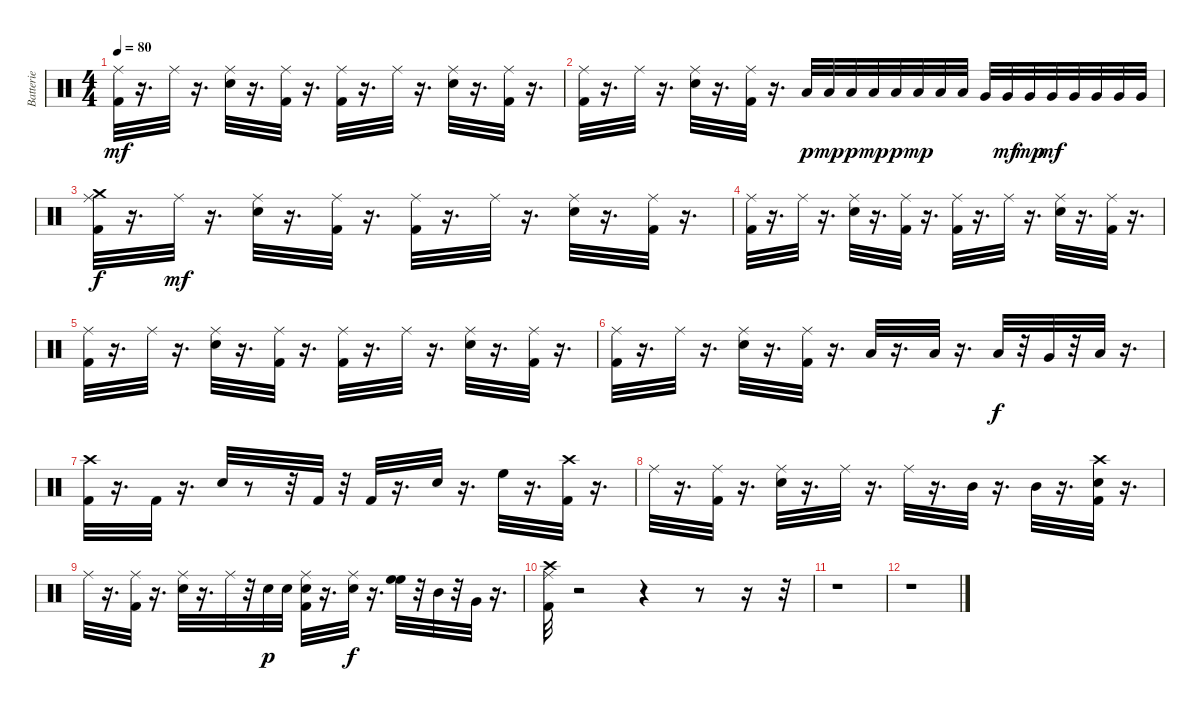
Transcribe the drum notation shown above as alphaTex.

\track ("Batterie" "Batterie") {instrument percussion}
\staff {score}
\articulation defaults
\ts (4 4)
\tempo 80
\clef neutral
\ks c
("Kick (hit) 2" "Ride (middle)").32{dy mf} r.16{d} "Ride (middle)".32 r.16{d} ("Ride (middle)" "Electric Snare (hit)").32 r.16{d} ("Ride (middle)" "Kick (hit) 2").32 r.16{d} ("Ride (middle)" "Kick (hit) 2").32 r.16{d} "Ride (middle)".32 r.16{d} ("Electric Snare (hit)" "Ride (middle)").32 r.16{d} ("Ride (middle)" "Kick (hit) 2").32 r.16{d} |
("Kick (hit) 2" "Ride (middle)").32 r.16{d} "Ride (middle)".32 r.16{d} ("Ride (middle)" "Electric Snare (hit)").32 r.16{d} ("Ride (middle)" "Kick (hit) 2").32 r.16{d} "Low Tom (hit)".32{dy p} "Low Tom (hit)".32{dy mp} "Low Tom (hit)".32{dy p} "Low Tom (hit)".32{dy mp} "Low Tom (hit)".32{dy p} "Low Tom (hit)".32{dy mp} "Low Tom (hit)".32 "Low Tom (hit)".32 "Very Low Tom (hit)".32 "Very Low Tom (hit)".32{dy mf} "Very Low Tom (hit)".32{dy mp} "Very Low Tom (hit)".32{dy mf} "Very Low Tom (hit)".32 "Very Low Tom (hit)".32 "Very Low Tom (hit)".32 "Very Low Tom (hit)".32 |
("Crash medium (hit)" "Kick (hit) 2" "Ride (middle)").32{dy f} r.16{d} "Ride (middle)".32{dy mf} r.16{d} ("Ride (middle)" "Electric Snare (hit)").32 r.16{d} ("Kick (hit) 2" "Ride (middle)").32 r.16{d} ("Ride (middle)" "Kick (hit) 2").32 r.16{d} "Ride (middle)".32 r.16{d} ("Electric Snare (hit)" "Ride (middle)").32 r.16{d} ("Ride (middle)" "Kick (hit) 2").32 r.16{d} |
("Ride (middle)" "Kick (hit) 2").32 r.16{d} "Ride (middle)".32 r.16{d} ("Ride (middle)" "Electric Snare (hit)").32 r.16{d} ("Ride (middle)" "Kick (hit) 2").32 r.16{d} ("Ride (middle)" "Kick (hit) 2").32 r.16{d} "Ride (middle)".32 r.16{d} ("Electric Snare (hit)" "Ride (middle)").32 r.16{d} ("Ride (middle)" "Kick (hit) 2").32 r.16{d} |
("Ride (middle)" "Kick (hit) 2").32 r.16{d} "Ride (middle)".32 r.16{d} ("Electric Snare (hit)" "Ride (middle)").32 r.16{d} ("Kick (hit) 2" "Ride (middle)").32 r.16{d} ("Ride (middle)" "Kick (hit) 2").32 r.16{d} "Ride (middle)".32 r.16{d} ("Electric Snare (hit)" "Ride (middle)").32 r.16{d} ("Ride (middle)" "Kick (hit) 2").32 r.16{d} |
("Ride (middle)" "Kick (hit) 2").32 r.16{d} "Ride (middle)".32 r.16{d} ("Ride (middle)" "Electric Snare (hit)").32 r.16{d} ("Kick (hit) 2" "Ride (middle)").32 r.16{d} "Low Tom (hit)".32 r.16{d} "Low Tom (hit)".32 r.16{d} "Low Tom (hit)".32{dy f} r.32 "Very Low Tom (hit)".32 r.32 "Low Floor Tom (hit)".32 r.16{d} |
("Kick (hit) 2" "Crash high (hit)").32 r.16{d} "Kick (hit) 2".32 r.16{d} "Electric Snare (hit)".32 r.8 r.32 "Kick (hit) 2".32 r.32 "Kick (hit) 2".32 r.16{d} "Electric Snare (hit)".32 r.16{d} "High Floor Tom (hit)".32 r.16{d} ("Crash high (hit)" "Kick (hit) 2").32 r.16{d} |
"Ride (middle)".32 r.16{d} ("Kick (hit) 2" "Ride (middle)").32 r.16{d} ("Ride (middle)" "Electric Snare (hit)").32 r.16{d} "Ride (middle)".32 r.16{d} "Ride (middle)".32 r.16{d} "Mid Tom (hit)".32 r.16{d} "Mid Tom (hit)".32 r.16{d} ("Crash high (hit)" "Kick (hit) 2" "Electric Snare (hit)").32 r.16{d} |
"Ride (middle)".32 r.16{d} ("Ride (middle)" "Kick (hit) 2").32 r.16{d} ("Electric Snare (hit)" "Ride (middle)").32 r.16{d} "Ride (middle)".32 r.32 "Electric Snare (hit)".32{dy p} "Electric Snare (hit)".32 ("Kick (hit) 2" "Ride (middle)" "Electric Snare (hit)").32 r.16{d} ("Electric Snare (hit)" "Ride (middle)").32{dy f} r.16{d} ("High Floor Tom (hit)" "High Floor Tom (hit)").32 r.32 "Mid Tom (hit)".32 r.32 "Very Low Tom (hit)".32 r.16{d} |
("Ride (middle)" "Kick (hit) 2" "Crash high (hit)").32 r.2 r.4 r.8 r.16 r.32 |
r.1 |
r.1
